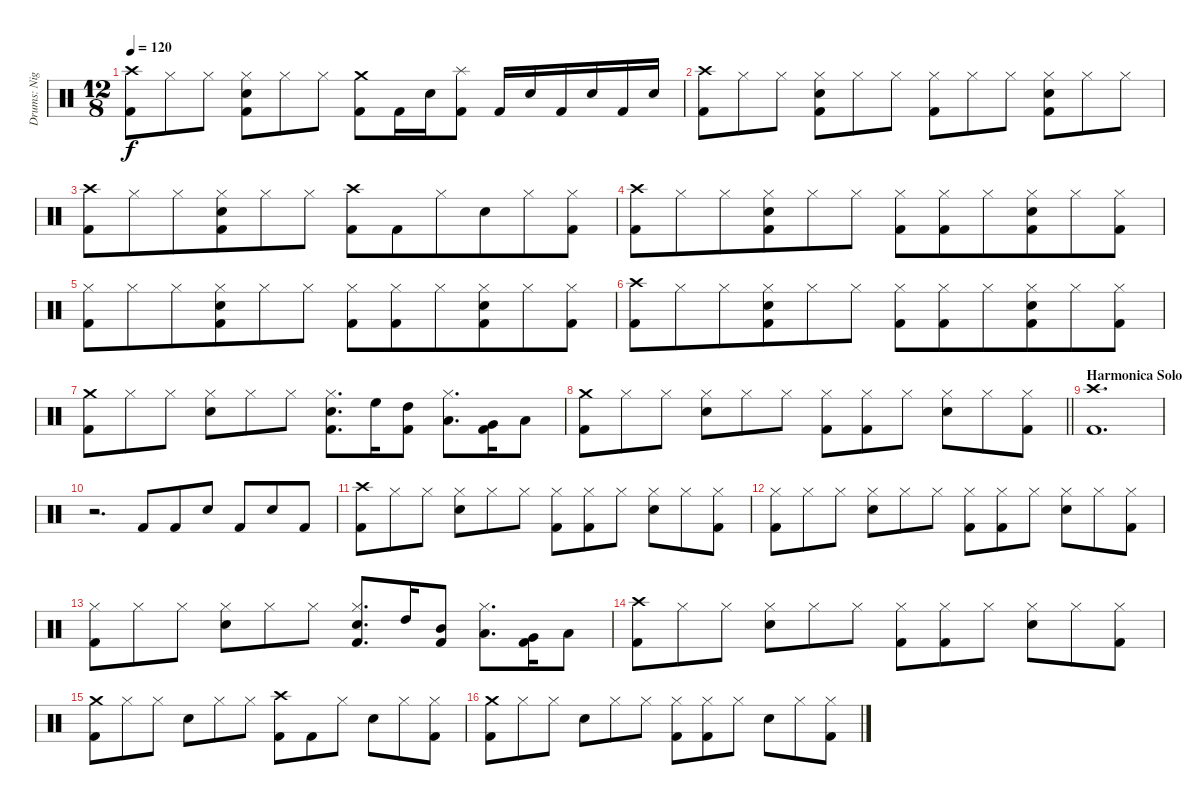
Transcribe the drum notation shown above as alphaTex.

\track ("Drums: Nigel" "Drums: Nig") {instrument percussion}
\staff {score}
\articulation defaults
\ts (12 8)
\tempo 120
\clef neutral
\ks c
("Crash high (hit)" "Kick (hit) 2").8{dy f} "Hi-Hat (closed)".8{beam merge} "Hi-Hat (closed)".8 ("Hi-Hat (closed)" "Snare (hit) 2" "Kick (hit) 2").8{beam merge} "Hi-Hat (closed)".8 "Hi-Hat (closed)".8 ("Crash medium (hit)" "Kick (hit) 2").8 "Kick (hit) 2".16 "Snare (hit) 2".16 ("Splash (hit)" "Kick (hit) 2").8 "Kick (hit) 2".16 "Snare (hit) 2".16 "Kick (hit) 2".16 "Snare (hit) 2".16 "Kick (hit) 2".16 "Snare (hit) 2".16 |
("Crash high (hit)" "Kick (hit) 2").8 "Hi-Hat (closed)".8{beam merge} "Hi-Hat (closed)".8 ("Hi-Hat (closed)" "Snare (hit) 2" "Kick (hit) 2").8{beam merge} "Hi-Hat (closed)".8 "Hi-Hat (closed)".8 ("Hi-Hat (closed)" "Kick (hit) 2").8 "Hi-Hat (closed)".8{beam merge} "Hi-Hat (closed)".8 ("Hi-Hat (closed)" "Snare (hit) 2" "Kick (hit) 2").8{beam merge} "Hi-Hat (closed)".8 "Hi-Hat (closed)".8 |
("Crash high (hit)" "Kick (hit) 2").8 "Hi-Hat (closed)".8{beam merge} "Hi-Hat (closed)".8{beam merge} ("Hi-Hat (closed)" "Snare (hit) 2" "Kick (hit) 2").8{beam merge} "Hi-Hat (closed)".8 "Hi-Hat (closed)".8 ("Crash high (hit)" "Kick (hit) 2").8 "Kick (hit) 2".8{beam merge} "Hi-Hat (closed)".8{beam merge} "Snare (hit) 2".8 "Hi-Hat (closed)".8 ("Hi-Hat (closed)" "Kick (hit) 2").8 |
("Crash high (hit)" "Kick (hit) 2").8 "Hi-Hat (closed)".8{beam merge} "Hi-Hat (closed)".8{beam merge} ("Hi-Hat (closed)" "Snare (hit) 2" "Kick (hit) 2").8{beam merge} "Hi-Hat (closed)".8 "Hi-Hat (closed)".8 ("Hi-Hat (closed)" "Kick (hit) 2").8 ("Hi-Hat (closed)" "Kick (hit) 2").8{beam merge} "Hi-Hat (closed)".8{beam merge} ("Hi-Hat (closed)" "Snare (hit) 2" "Kick (hit) 2").8 "Hi-Hat (closed)".8 ("Hi-Hat (closed)" "Kick (hit) 2").8 |
("Hi-Hat (closed)" "Kick (hit) 2").8 "Hi-Hat (closed)".8{beam merge} "Hi-Hat (closed)".8{beam merge} ("Hi-Hat (closed)" "Snare (hit) 2" "Kick (hit) 2").8{beam merge} "Hi-Hat (closed)".8 "Hi-Hat (closed)".8 ("Hi-Hat (closed)" "Kick (hit) 2").8 ("Hi-Hat (closed)" "Kick (hit) 2").8{beam merge} "Hi-Hat (closed)".8{beam merge} ("Hi-Hat (closed)" "Snare (hit) 2" "Kick (hit) 2").8 "Hi-Hat (closed)".8 ("Hi-Hat (closed)" "Kick (hit) 2").8 |
("Crash high (hit)" "Kick (hit) 2").8 "Hi-Hat (closed)".8{beam merge} "Hi-Hat (closed)".8{beam merge} ("Hi-Hat (closed)" "Snare (hit) 2" "Kick (hit) 2").8{beam merge} "Hi-Hat (closed)".8 "Hi-Hat (closed)".8 ("Hi-Hat (closed)" "Kick (hit) 2").8 ("Hi-Hat (closed)" "Kick (hit) 2").8{beam merge} "Hi-Hat (closed)".8{beam merge} ("Hi-Hat (closed)" "Snare (hit) 2" "Kick (hit) 2").8 "Hi-Hat (closed)".8 ("Hi-Hat (closed)" "Kick (hit) 2").8 |
("Crash medium (hit)" "Kick (hit) 2").8 "Hi-Hat (closed)".8 "Hi-Hat (closed)".8 ("Hi-Hat (closed)" "Snare (hit) 2").8 "Hi-Hat (closed)".8 "Hi-Hat (closed)".8 ("Hi-Hat (closed)" "Snare (hit) 2" "Kick (hit) 2").8{d} "High Floor Tom (hit)".16 ("High Tom (hit)" "Kick (hit) 2").8 ("Hi-Hat (closed)" "Low Tom (hit)").8{d} ("Very Low Tom (hit)" "Kick (hit) 2").16 "Low Floor Tom (hit)".8 |
\barLineRight lightlight
("Crash medium (hit)" "Kick (hit) 2").8 "Hi-Hat (closed)".8 "Hi-Hat (closed)".8 ("Hi-Hat (closed)" "Snare (hit) 2").8 "Hi-Hat (closed)".8 "Hi-Hat (closed)".8 ("Hi-Hat (closed)" "Kick (hit) 2").8 ("Hi-Hat (closed)" "Kick (hit) 2").8 "Hi-Hat (closed)".8 ("Hi-Hat (closed)" "Snare (hit) 2").8 "Hi-Hat (closed)".8 ("Hi-Hat (closed)" "Kick (hit) 2").8 |
\section ("" "Harmonica Solo")
("Crash high (hit)" "Kick (hit) 2").1{d} |
r.2{d} "Kick (hit) 2".8 "Kick (hit) 2".8 "Snare (hit) 2".8 "Kick (hit) 2".8 "Snare (hit) 2".8 "Kick (hit) 2".8 |
("Crash high (hit)" "Kick (hit) 2").8 "Hi-Hat (closed)".8 "Hi-Hat (closed)".8 ("Hi-Hat (closed)" "Snare (hit) 2").8 "Hi-Hat (closed)".8 "Hi-Hat (closed)".8 ("Hi-Hat (closed)" "Kick (hit) 2").8 ("Hi-Hat (closed)" "Kick (hit) 2").8 "Hi-Hat (closed)".8 ("Hi-Hat (closed)" "Snare (hit) 2").8 "Hi-Hat (closed)".8 ("Hi-Hat (closed)" "Kick (hit) 2").8 |
("Hi-Hat (closed)" "Kick (hit) 2").8 "Hi-Hat (closed)".8 "Hi-Hat (closed)".8 ("Hi-Hat (closed)" "Snare (hit) 2").8 "Hi-Hat (closed)".8 "Hi-Hat (closed)".8 ("Hi-Hat (closed)" "Kick (hit) 2").8 ("Hi-Hat (closed)" "Kick (hit) 2").8 "Hi-Hat (closed)".8 ("Hi-Hat (closed)" "Snare (hit) 2").8 "Hi-Hat (closed)".8 ("Hi-Hat (closed)" "Kick (hit) 2").8 |
("Hi-Hat (closed)" "Kick (hit) 2").8 "Hi-Hat (closed)".8 "Hi-Hat (closed)".8 ("Hi-Hat (closed)" "Snare (hit) 2").8 "Hi-Hat (closed)".8 "Hi-Hat (closed)".8 ("Hi-Hat (closed)" "Snare (hit) 2" "Kick (hit) 2").8{d} "High Tom (hit)".16 ("Mid Tom (hit)" "Kick (hit) 2").8 ("Hi-Hat (closed)" "Low Tom (hit)").8{d} ("Very Low Tom (hit)" "Kick (hit) 2").16 "Low Floor Tom (hit)".8 |
("Crash high (hit)" "Kick (hit) 2").8 "Hi-Hat (closed)".8 "Hi-Hat (closed)".8 ("Hi-Hat (closed)" "Snare (hit) 2").8 "Hi-Hat (closed)".8 "Hi-Hat (closed)".8 ("Hi-Hat (closed)" "Kick (hit) 2").8 ("Hi-Hat (closed)" "Kick (hit) 2").8 "Hi-Hat (closed)".8 ("Hi-Hat (closed)" "Snare (hit) 2").8 "Hi-Hat (closed)".8 ("Hi-Hat (closed)" "Kick (hit) 2").8 |
("Crash medium (hit)" "Kick (hit) 2").8 "Hi-Hat (closed)".8 "Hi-Hat (closed)".8 "Snare (hit) 2".8 "Hi-Hat (closed)".8 "Hi-Hat (closed)".8 ("Crash high (hit)" "Kick (hit) 2").8 "Kick (hit) 2".8 "Hi-Hat (closed)".8 "Snare (hit) 2".8 "Hi-Hat (closed)".8 ("Hi-Hat (closed)" "Kick (hit) 2").8 |
("Crash medium (hit)" "Kick (hit) 2").8 "Hi-Hat (closed)".8 "Hi-Hat (closed)".8 "Snare (hit) 2".8 "Hi-Hat (closed)".8 "Hi-Hat (closed)".8 ("Hi-Hat (closed)" "Kick (hit) 2").8 ("Hi-Hat (closed)" "Kick (hit) 2").8 "Hi-Hat (closed)".8 "Snare (hit) 2".8 "Hi-Hat (closed)".8 ("Hi-Hat (closed)" "Kick (hit) 2").8
